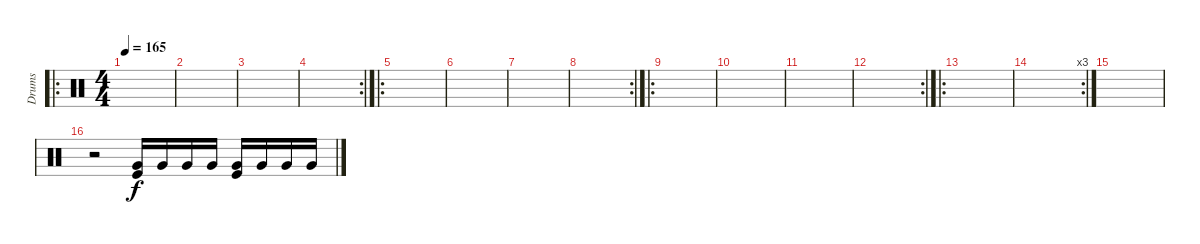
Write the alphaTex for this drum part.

\track ("Drums" "Drums") {instrument percussion}
\staff {score}
\articulation defaults
\ro
\ts (4 4)
\tempo 165
\clef neutral
\ks c
|
|
|
\rc 2
|
\ro
|
|
|
\rc 2
|
\ro
|
|
|
\rc 2
|
\ro
|
\rc 3
|
|
r.2 ("Very Low Tom (hit)" "Kick (hit)").16 "Very Low Tom (hit)".16 "Very Low Tom (hit)".16 "Very Low Tom (hit)".16 ("Very Low Tom (hit)" "Kick (hit)").16 "Very Low Tom (hit)".16 "Very Low Tom (hit)".16 "Very Low Tom (hit)".16
